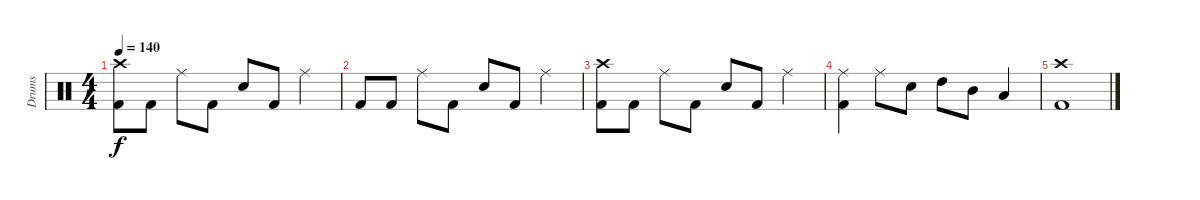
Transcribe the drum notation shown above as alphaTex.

\track ("Drums" "Drums") {instrument percussion}
\staff {score}
\articulation defaults
\ts (4 4)
\tempo 140
\clef neutral
\ks c
("Crash high (hit)" "Kick (hit) 2").8{dy f} "Kick (hit) 2".8 "Ride (middle)".8 "Kick (hit) 2".8 "Electric Snare (hit)".8 "Kick (hit) 2".8 "Ride (middle)".4 |
"Kick (hit) 2".8 "Kick (hit) 2".8 "Ride (middle)".8 "Kick (hit) 2".8 "Electric Snare (hit)".8 "Kick (hit) 2".8 "Ride (middle)".4 |
("Crash high (hit)" "Kick (hit) 2").8 "Kick (hit) 2".8 "Ride (middle)".8 "Kick (hit) 2".8 "Electric Snare (hit)".8 "Kick (hit) 2".8 "Ride (middle)".4 |
("Ride (middle)" "Kick (hit) 2").4 "Ride (middle)".8 "Electric Snare (hit)".8 "High Tom (hit)".8 "Mid Tom (hit)".8 "Low Tom (hit)".4 |
("Crash high (hit)" "Kick (hit) 2").1
